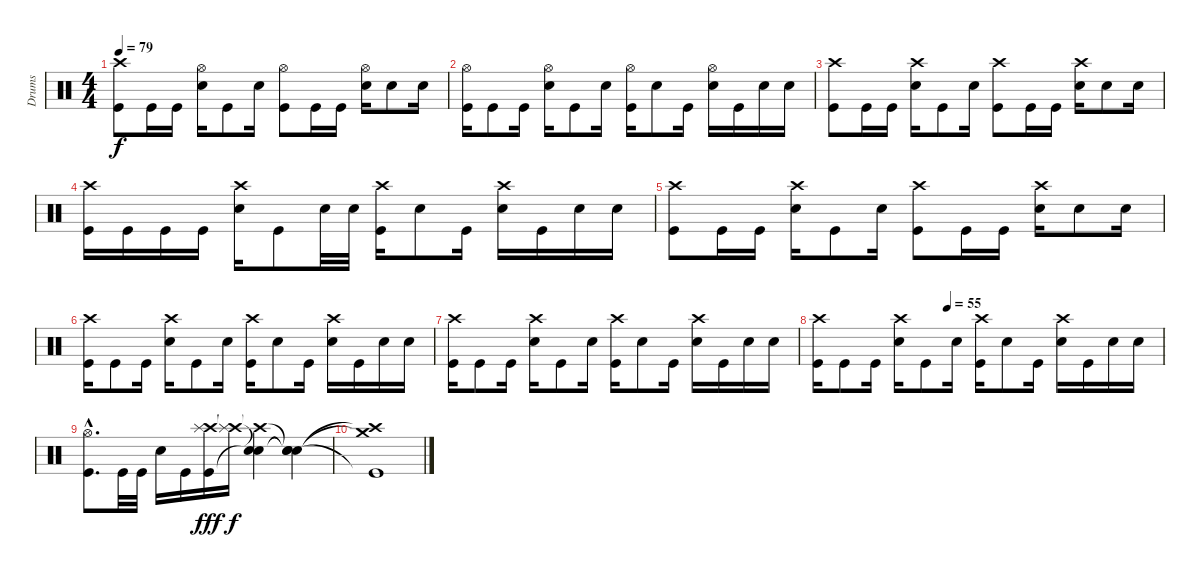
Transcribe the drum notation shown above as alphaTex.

\track ("Drums" "Drums") {instrument percussion}
\staff {score}
\articulation defaults
\ts (4 4)
\tempo 79
\clef neutral
\ks c
("Crash high (hit)" "Kick (hit)").8{dy f} "Kick (hit)".16 "Kick (hit)".16 ("Hi-Hat (open)" "Electric Snare (hit)").16 "Kick (hit)".8 "Electric Snare (hit)".16 ("Hi-Hat (open)" "Kick (hit)").8 "Kick (hit)".16 "Kick (hit)".16 ("Hi-Hat (open)" "Electric Snare (hit)").16 "Electric Snare (hit)".8 "Electric Snare (hit)".16 |
("Hi-Hat (open)" "Kick (hit)").16 "Kick (hit)".8 "Kick (hit)".16 ("Hi-Hat (open)" "Electric Snare (hit)").16 "Kick (hit)".8 "Electric Snare (hit)".16 ("Hi-Hat (open)" "Kick (hit)").16 "Electric Snare (hit)".8 "Kick (hit)".16 ("Hi-Hat (open)" "Electric Snare (hit)").16 "Kick (hit)".16 "Electric Snare (hit)".16 "Electric Snare (hit)".16 |
("Crash high (hit)" "Kick (hit)").8 "Kick (hit)".16 "Kick (hit)".16 ("Crash high (hit)" "Electric Snare (hit)").16 "Kick (hit)".8 "Electric Snare (hit)".16 ("Crash high (hit)" "Kick (hit)").8 "Kick (hit)".16 "Kick (hit)".16 ("Crash high (hit)" "Electric Snare (hit)").16 "Electric Snare (hit)".8 "Electric Snare (hit)".16 |
("Crash high (hit)" "Kick (hit)").16 "Kick (hit)".16 "Kick (hit)".16 "Kick (hit)".16 ("Crash high (hit)" "Electric Snare (hit)").16 "Kick (hit)".8 "Electric Snare (hit)".32 "Electric Snare (hit)".32 ("Crash high (hit)" "Kick (hit)").16 "Electric Snare (hit)".8 "Kick (hit)".16 ("Crash high (hit)" "Electric Snare (hit)").16 "Kick (hit)".16 "Electric Snare (hit)".16 "Electric Snare (hit)".16 |
("Crash high (hit)" "Kick (hit)").8 "Kick (hit)".16 "Kick (hit)".16 ("Crash high (hit)" "Electric Snare (hit)").16 "Kick (hit)".8 "Electric Snare (hit)".16 ("Crash high (hit)" "Kick (hit)").8 "Kick (hit)".16 "Kick (hit)".16 ("Crash high (hit)" "Electric Snare (hit)").16 "Electric Snare (hit)".8 "Electric Snare (hit)".16 |
("Crash high (hit)" "Kick (hit)").16 "Kick (hit)".8 "Kick (hit)".16 ("Crash high (hit)" "Electric Snare (hit)").16 "Kick (hit)".8 "Electric Snare (hit)".16 ("Crash high (hit)" "Kick (hit)").16 "Electric Snare (hit)".8 "Kick (hit)".16 ("Crash high (hit)" "Electric Snare (hit)").16 "Kick (hit)".16 "Electric Snare (hit)".16 "Electric Snare (hit)".16 |
("Crash high (hit)" "Kick (hit)").16 "Kick (hit)".8 "Kick (hit)".16 ("Crash high (hit)" "Electric Snare (hit)").16 "Kick (hit)".8 "Electric Snare (hit)".16 ("Crash high (hit)" "Kick (hit)").16 "Electric Snare (hit)".8 "Kick (hit)".16 ("Crash high (hit)" "Electric Snare (hit)").16 "Kick (hit)".16 "Electric Snare (hit)".16 "Electric Snare (hit)".16 |
\tempo (55 0.375)
("Crash high (hit)" "Kick (hit)").16 "Kick (hit)".8 "Kick (hit)".16 ("Crash high (hit)" "Electric Snare (hit)").16 "Kick (hit)".8 "Electric Snare (hit)".16 ("Crash high (hit)" "Kick (hit)").16 "Electric Snare (hit)".8 "Kick (hit)".16 ("Crash high (hit)" "Electric Snare (hit)").16 "Kick (hit)".16 "Electric Snare (hit)".16 "Electric Snare (hit)".16 |
("Hi-Hat (open)"{hac} "Kick (hit)"{hac}).8{d} "Kick (hit)".32 "Kick (hit)".32 "Electric Snare (hit)".16 "Kick (hit)".16 ("Crash high (hit)" "Splash (hit)" "Kick (hit)").16{dy fff} ("Crash high (hit)"{t} "Splash (hit)"{t}).16{dy f} ("Crash high (hit)"{t} "Snare (hit)"{t} "Snare (hit)"{t}).4 ("Snare (hit)"{t} "Snare (hit)"{t} "Snare (hit)"{t}).4 |
("Crash high (hit)"{t} "Crash medium (hit)"{t} "Kick (hit)"{t}).1
